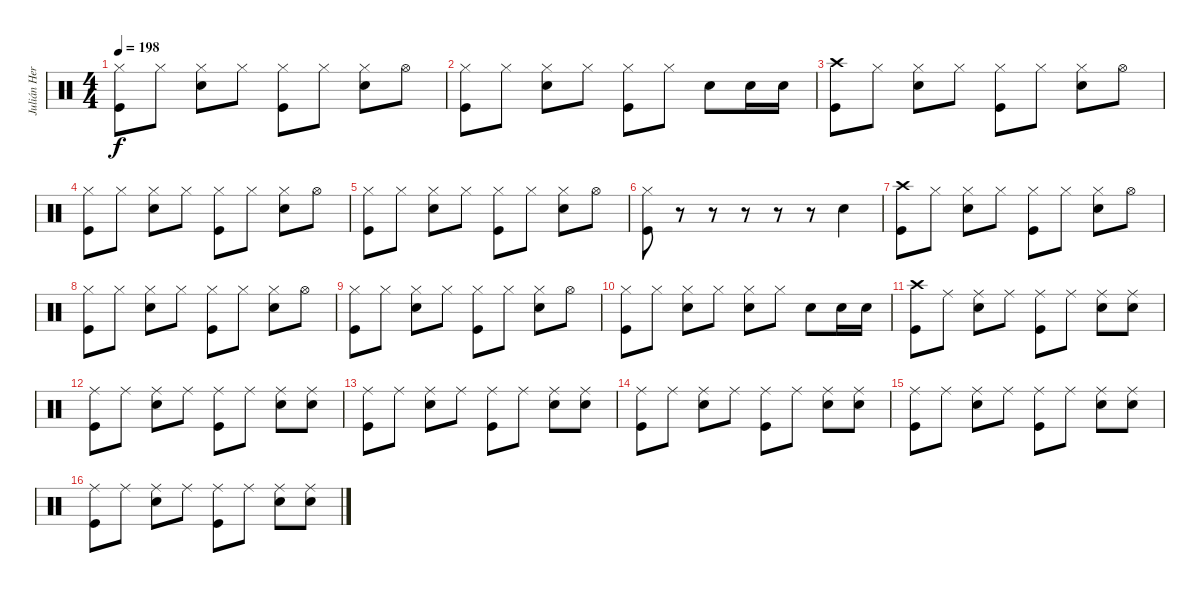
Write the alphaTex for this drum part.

\track ("Julián Hernández - Batería" "Julián Her") {instrument percussion}
\staff {score}
\articulation defaults
\ts (4 4)
\tempo 198
\clef neutral
\ks c
("Hi-Hat (closed)" "Kick (hit)").8{dy f} "Hi-Hat (closed)".8 ("Hi-Hat (closed)" "Electric Snare (hit)").8 "Hi-Hat (closed)".8 ("Hi-Hat (closed)" "Kick (hit)").8 "Hi-Hat (closed)".8 ("Hi-Hat (closed)" "Electric Snare (hit)").8 "Hi-Hat (open)".8 |
("Hi-Hat (closed)" "Kick (hit)").8 "Hi-Hat (closed)".8 ("Hi-Hat (closed)" "Electric Snare (hit)").8 "Hi-Hat (closed)".8 ("Hi-Hat (closed)" "Kick (hit)").8 "Hi-Hat (closed)".8 "Electric Snare (hit)".8 "Electric Snare (hit)".16 "Electric Snare (hit)".16 |
("Crash high (hit)" "Kick (hit)").8 "Hi-Hat (closed)".8 ("Hi-Hat (closed)" "Electric Snare (hit)").8 "Hi-Hat (closed)".8 ("Hi-Hat (closed)" "Kick (hit)").8 "Hi-Hat (closed)".8 ("Hi-Hat (closed)" "Electric Snare (hit)").8 "Hi-Hat (open)".8 |
("Hi-Hat (closed)" "Kick (hit)").8 "Hi-Hat (closed)".8 ("Hi-Hat (closed)" "Electric Snare (hit)").8 "Hi-Hat (closed)".8 ("Hi-Hat (closed)" "Kick (hit)").8 "Hi-Hat (closed)".8 ("Hi-Hat (closed)" "Electric Snare (hit)").8 "Hi-Hat (open)".8 |
("Hi-Hat (closed)" "Kick (hit)").8 "Hi-Hat (closed)".8 ("Hi-Hat (closed)" "Electric Snare (hit)").8 "Hi-Hat (closed)".8 ("Hi-Hat (closed)" "Kick (hit)").8 "Hi-Hat (closed)".8 ("Hi-Hat (closed)" "Electric Snare (hit)").8 "Hi-Hat (open)".8 |
("Hi-Hat (closed)" "Kick (hit)").8 r.8 r.8 r.8 r.8 r.8 "Electric Snare (hit)".4 |
("Crash high (hit)" "Kick (hit)").8 "Hi-Hat (closed)".8 ("Hi-Hat (closed)" "Electric Snare (hit)").8 "Hi-Hat (closed)".8 ("Hi-Hat (closed)" "Kick (hit)").8 "Hi-Hat (closed)".8 ("Hi-Hat (closed)" "Electric Snare (hit)").8 "Hi-Hat (open)".8 |
("Hi-Hat (closed)" "Kick (hit)").8 "Hi-Hat (closed)".8 ("Hi-Hat (closed)" "Electric Snare (hit)").8 "Hi-Hat (closed)".8 ("Hi-Hat (closed)" "Kick (hit)").8 "Hi-Hat (closed)".8 ("Hi-Hat (closed)" "Electric Snare (hit)").8 "Hi-Hat (open)".8 |
("Hi-Hat (closed)" "Kick (hit)").8 "Hi-Hat (closed)".8 ("Hi-Hat (closed)" "Electric Snare (hit)").8 "Hi-Hat (closed)".8 ("Hi-Hat (closed)" "Kick (hit)").8 "Hi-Hat (closed)".8 ("Hi-Hat (closed)" "Electric Snare (hit)").8 "Hi-Hat (open)".8 |
("Hi-Hat (closed)" "Kick (hit)").8 "Hi-Hat (closed)".8 ("Hi-Hat (closed)" "Electric Snare (hit)").8 "Hi-Hat (closed)".8 ("Hi-Hat (closed)" "Electric Snare (hit)").8 "Hi-Hat (closed)".8 "Electric Snare (hit)".8 "Electric Snare (hit)".16 "Electric Snare (hit)".16 |
("Crash high (hit)" "Kick (hit)").8 "Ride (middle)".8 ("Ride (middle)" "Electric Snare (hit)").8 "Ride (middle)".8 ("Ride (middle)" "Kick (hit)").8 "Ride (middle)".8 ("Ride (middle)" "Electric Snare (hit)").8 ("Ride (middle)" "Electric Snare (hit)").8 |
("Ride (middle)" "Kick (hit)").8 "Ride (middle)".8 ("Ride (middle)" "Electric Snare (hit)").8 "Ride (middle)".8 ("Ride (middle)" "Kick (hit)").8 "Ride (middle)".8 ("Ride (middle)" "Electric Snare (hit)").8 ("Ride (middle)" "Electric Snare (hit)").8 |
("Ride (middle)" "Kick (hit)").8 "Ride (middle)".8 ("Ride (middle)" "Electric Snare (hit)").8 "Ride (middle)".8 ("Ride (middle)" "Kick (hit)").8 "Ride (middle)".8 ("Ride (middle)" "Electric Snare (hit)").8 ("Ride (middle)" "Electric Snare (hit)").8 |
("Ride (middle)" "Kick (hit)").8 "Ride (middle)".8 ("Ride (middle)" "Electric Snare (hit)").8 "Ride (middle)".8 ("Ride (middle)" "Kick (hit)").8 "Ride (middle)".8 ("Ride (middle)" "Electric Snare (hit)").8 ("Ride (middle)" "Electric Snare (hit)").8 |
("Ride (middle)" "Kick (hit)").8 "Ride (middle)".8 ("Ride (middle)" "Electric Snare (hit)").8 "Ride (middle)".8 ("Ride (middle)" "Kick (hit)").8 "Ride (middle)".8 ("Ride (middle)" "Electric Snare (hit)").8 ("Ride (middle)" "Electric Snare (hit)").8 |
("Ride (middle)" "Kick (hit)").8 "Ride (middle)".8 ("Ride (middle)" "Electric Snare (hit)").8 "Ride (middle)".8 ("Ride (middle)" "Kick (hit)").8 "Ride (middle)".8 ("Ride (middle)" "Electric Snare (hit)").8 ("Ride (middle)" "Electric Snare (hit)").8
